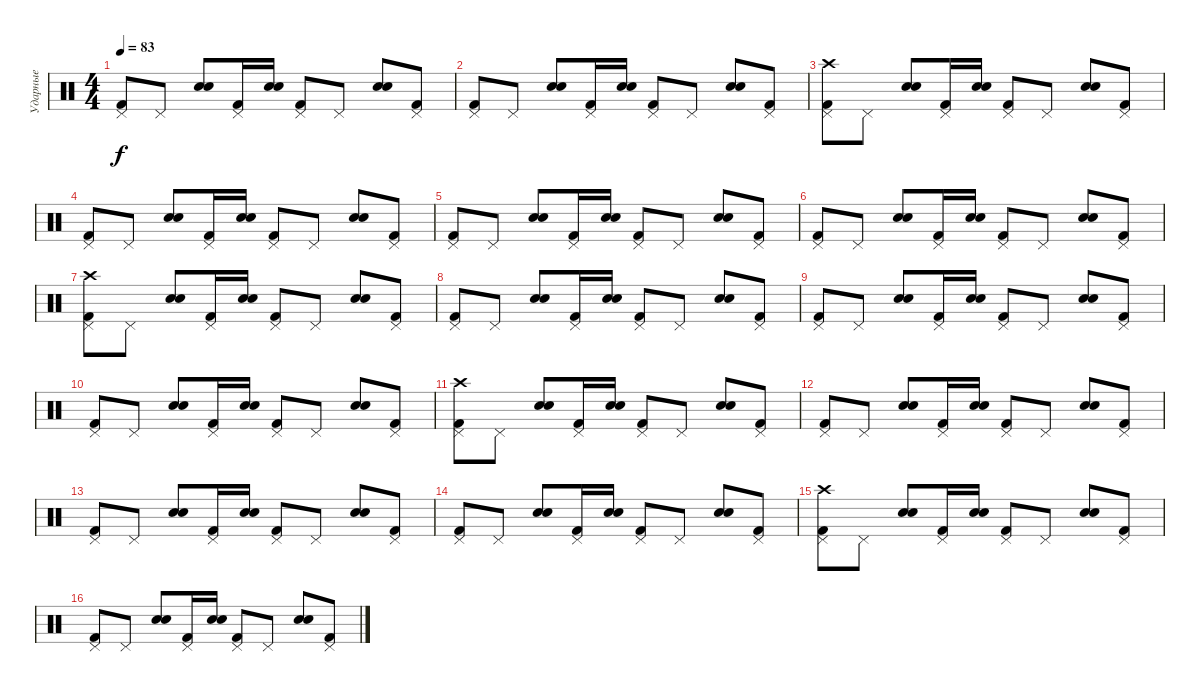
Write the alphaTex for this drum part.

\track ("Ударные" "Ударные") {instrument percussion}
\staff {score}
\articulation defaults
\ts (4 4)
\tempo 83
\clef neutral
\ks c
("Kick (hit) 2" "Pedal Hi-Hat (hit)").8{dy f} "Pedal Hi-Hat (hit)".8 ("Hand Clap (hit)" "Electric Snare (hit)").8 ("Kick (hit) 2" "Pedal Hi-Hat (hit)").16 ("Hand Clap (hit)" "Electric Snare (hit)").16 ("Kick (hit) 2" "Pedal Hi-Hat (hit)").8 "Pedal Hi-Hat (hit)".8 ("Hand Clap (hit)" "Electric Snare (hit)").8 ("Kick (hit) 2" "Pedal Hi-Hat (hit)").8 |
("Kick (hit) 2" "Pedal Hi-Hat (hit)").8 "Pedal Hi-Hat (hit)".8 ("Hand Clap (hit)" "Electric Snare (hit)").8 ("Kick (hit) 2" "Pedal Hi-Hat (hit)").16 ("Hand Clap (hit)" "Electric Snare (hit)").16 ("Kick (hit) 2" "Pedal Hi-Hat (hit)").8 "Pedal Hi-Hat (hit)".8 ("Hand Clap (hit)" "Electric Snare (hit)").8 ("Kick (hit) 2" "Pedal Hi-Hat (hit)").8 |
("Kick (hit) 2" "Pedal Hi-Hat (hit)" "Crash high (hit)").8 "Pedal Hi-Hat (hit)".8 ("Hand Clap (hit)" "Electric Snare (hit)").8 ("Kick (hit) 2" "Pedal Hi-Hat (hit)").16 ("Hand Clap (hit)" "Electric Snare (hit)").16 ("Kick (hit) 2" "Pedal Hi-Hat (hit)").8 "Pedal Hi-Hat (hit)".8 ("Hand Clap (hit)" "Electric Snare (hit)").8 ("Kick (hit) 2" "Pedal Hi-Hat (hit)").8 |
("Kick (hit) 2" "Pedal Hi-Hat (hit)").8 "Pedal Hi-Hat (hit)".8 ("Hand Clap (hit)" "Electric Snare (hit)").8 ("Kick (hit) 2" "Pedal Hi-Hat (hit)").16 ("Hand Clap (hit)" "Electric Snare (hit)").16 ("Kick (hit) 2" "Pedal Hi-Hat (hit)").8 "Pedal Hi-Hat (hit)".8 ("Hand Clap (hit)" "Electric Snare (hit)").8 ("Kick (hit) 2" "Pedal Hi-Hat (hit)").8 |
("Kick (hit) 2" "Pedal Hi-Hat (hit)").8 "Pedal Hi-Hat (hit)".8 ("Hand Clap (hit)" "Electric Snare (hit)").8 ("Kick (hit) 2" "Pedal Hi-Hat (hit)").16 ("Hand Clap (hit)" "Electric Snare (hit)").16 ("Kick (hit) 2" "Pedal Hi-Hat (hit)").8 "Pedal Hi-Hat (hit)".8 ("Hand Clap (hit)" "Electric Snare (hit)").8 ("Kick (hit) 2" "Pedal Hi-Hat (hit)").8 |
("Kick (hit) 2" "Pedal Hi-Hat (hit)").8 "Pedal Hi-Hat (hit)".8 ("Hand Clap (hit)" "Electric Snare (hit)").8 ("Kick (hit) 2" "Pedal Hi-Hat (hit)").16 ("Hand Clap (hit)" "Electric Snare (hit)").16 ("Kick (hit) 2" "Pedal Hi-Hat (hit)").8 "Pedal Hi-Hat (hit)".8 ("Hand Clap (hit)" "Electric Snare (hit)").8 ("Kick (hit) 2" "Pedal Hi-Hat (hit)").8 |
("Kick (hit) 2" "Pedal Hi-Hat (hit)" "Crash high (hit)").8 "Pedal Hi-Hat (hit)".8 ("Hand Clap (hit)" "Electric Snare (hit)").8 ("Kick (hit) 2" "Pedal Hi-Hat (hit)").16 ("Hand Clap (hit)" "Electric Snare (hit)").16 ("Kick (hit) 2" "Pedal Hi-Hat (hit)").8 "Pedal Hi-Hat (hit)".8 ("Hand Clap (hit)" "Electric Snare (hit)").8 ("Kick (hit) 2" "Pedal Hi-Hat (hit)").8 |
("Kick (hit) 2" "Pedal Hi-Hat (hit)").8 "Pedal Hi-Hat (hit)".8 ("Hand Clap (hit)" "Electric Snare (hit)").8 ("Kick (hit) 2" "Pedal Hi-Hat (hit)").16 ("Hand Clap (hit)" "Electric Snare (hit)").16 ("Kick (hit) 2" "Pedal Hi-Hat (hit)").8 "Pedal Hi-Hat (hit)".8 ("Hand Clap (hit)" "Electric Snare (hit)").8 ("Kick (hit) 2" "Pedal Hi-Hat (hit)").8 |
("Kick (hit) 2" "Pedal Hi-Hat (hit)").8 "Pedal Hi-Hat (hit)".8 ("Hand Clap (hit)" "Electric Snare (hit)").8 ("Kick (hit) 2" "Pedal Hi-Hat (hit)").16 ("Hand Clap (hit)" "Electric Snare (hit)").16 ("Kick (hit) 2" "Pedal Hi-Hat (hit)").8 "Pedal Hi-Hat (hit)".8 ("Hand Clap (hit)" "Electric Snare (hit)").8 ("Kick (hit) 2" "Pedal Hi-Hat (hit)").8 |
("Kick (hit) 2" "Pedal Hi-Hat (hit)").8 "Pedal Hi-Hat (hit)".8 ("Hand Clap (hit)" "Electric Snare (hit)").8 ("Kick (hit) 2" "Pedal Hi-Hat (hit)").16 ("Hand Clap (hit)" "Electric Snare (hit)").16 ("Kick (hit) 2" "Pedal Hi-Hat (hit)").8 "Pedal Hi-Hat (hit)".8 ("Hand Clap (hit)" "Electric Snare (hit)").8 ("Kick (hit) 2" "Pedal Hi-Hat (hit)").8 |
("Kick (hit) 2" "Pedal Hi-Hat (hit)" "Crash high (hit)").8 "Pedal Hi-Hat (hit)".8 ("Hand Clap (hit)" "Electric Snare (hit)").8 ("Kick (hit) 2" "Pedal Hi-Hat (hit)").16 ("Hand Clap (hit)" "Electric Snare (hit)").16 ("Kick (hit) 2" "Pedal Hi-Hat (hit)").8 "Pedal Hi-Hat (hit)".8 ("Hand Clap (hit)" "Electric Snare (hit)").8 ("Kick (hit) 2" "Pedal Hi-Hat (hit)").8 |
("Kick (hit) 2" "Pedal Hi-Hat (hit)").8 "Pedal Hi-Hat (hit)".8 ("Hand Clap (hit)" "Electric Snare (hit)").8 ("Kick (hit) 2" "Pedal Hi-Hat (hit)").16 ("Hand Clap (hit)" "Electric Snare (hit)").16 ("Kick (hit) 2" "Pedal Hi-Hat (hit)").8 "Pedal Hi-Hat (hit)".8 ("Hand Clap (hit)" "Electric Snare (hit)").8 ("Kick (hit) 2" "Pedal Hi-Hat (hit)").8 |
("Kick (hit) 2" "Pedal Hi-Hat (hit)").8 "Pedal Hi-Hat (hit)".8 ("Hand Clap (hit)" "Electric Snare (hit)").8 ("Kick (hit) 2" "Pedal Hi-Hat (hit)").16 ("Hand Clap (hit)" "Electric Snare (hit)").16 ("Kick (hit) 2" "Pedal Hi-Hat (hit)").8 "Pedal Hi-Hat (hit)".8 ("Hand Clap (hit)" "Electric Snare (hit)").8 ("Kick (hit) 2" "Pedal Hi-Hat (hit)").8 |
("Kick (hit) 2" "Pedal Hi-Hat (hit)").8 "Pedal Hi-Hat (hit)".8 ("Hand Clap (hit)" "Electric Snare (hit)").8 ("Kick (hit) 2" "Pedal Hi-Hat (hit)").16 ("Hand Clap (hit)" "Electric Snare (hit)").16 ("Kick (hit) 2" "Pedal Hi-Hat (hit)").8 "Pedal Hi-Hat (hit)".8 ("Hand Clap (hit)" "Electric Snare (hit)").8 ("Kick (hit) 2" "Pedal Hi-Hat (hit)").8 |
("Kick (hit) 2" "Pedal Hi-Hat (hit)" "Crash high (hit)").8 "Pedal Hi-Hat (hit)".8 ("Hand Clap (hit)" "Electric Snare (hit)").8 ("Kick (hit) 2" "Pedal Hi-Hat (hit)").16 ("Hand Clap (hit)" "Electric Snare (hit)").16 ("Kick (hit) 2" "Pedal Hi-Hat (hit)").8 "Pedal Hi-Hat (hit)".8 ("Hand Clap (hit)" "Electric Snare (hit)").8 ("Kick (hit) 2" "Pedal Hi-Hat (hit)").8 |
("Kick (hit) 2" "Pedal Hi-Hat (hit)").8 "Pedal Hi-Hat (hit)".8 ("Hand Clap (hit)" "Electric Snare (hit)").8 ("Kick (hit) 2" "Pedal Hi-Hat (hit)").16 ("Hand Clap (hit)" "Electric Snare (hit)").16 ("Kick (hit) 2" "Pedal Hi-Hat (hit)").8 "Pedal Hi-Hat (hit)".8 ("Hand Clap (hit)" "Electric Snare (hit)").8 ("Kick (hit) 2" "Pedal Hi-Hat (hit)").8
